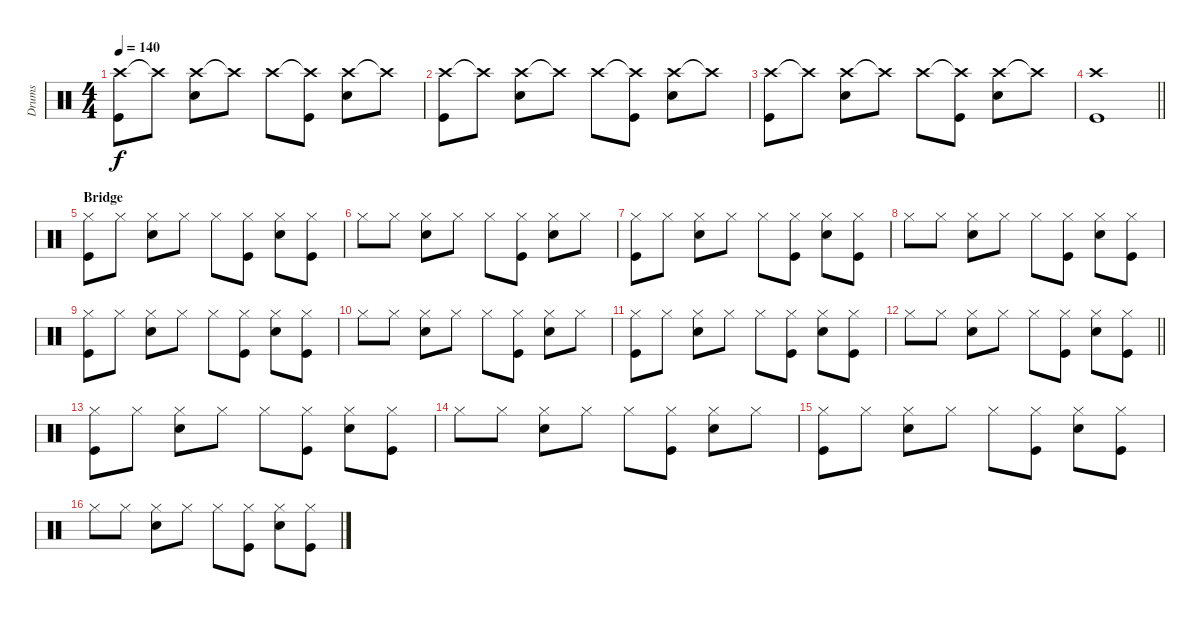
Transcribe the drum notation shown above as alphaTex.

\track ("Drums" "Drums") {instrument percussion}
\staff {score}
\articulation defaults
\ts (4 4)
\tempo 140
\clef neutral
\ks c
("Crash high (hit)" "Kick (hit)").8{dy f} "Crash high (hit)"{t}.8 ("Crash high (hit)" "Snare (hit) 2").8 "Crash high (hit)"{t}.8 "Crash high (hit)".8 ("Crash high (hit)"{t} "Kick (hit)").8 ("Crash high (hit)" "Snare (hit) 2").8 "Crash high (hit)"{t}.8 |
("Crash high (hit)" "Kick (hit)").8 "Crash high (hit)"{t}.8 ("Crash high (hit)" "Snare (hit) 2").8 "Crash high (hit)"{t}.8 "Crash high (hit)".8 ("Crash high (hit)"{t} "Kick (hit)").8 ("Crash high (hit)" "Snare (hit) 2").8 "Crash high (hit)"{t}.8 |
("Crash high (hit)" "Kick (hit)").8 "Crash high (hit)"{t}.8 ("Crash high (hit)" "Snare (hit) 2").8 "Crash high (hit)"{t}.8 "Crash high (hit)".8 ("Crash high (hit)"{t} "Kick (hit)").8 ("Crash high (hit)" "Snare (hit) 2").8 "Crash high (hit)"{t}.8 |
\barLineRight lightlight
("Crash high (hit)" "Kick (hit)").1 |
\section ("" "Bridge")
("Hi-Hat (closed)" "Kick (hit)").8 "Hi-Hat (closed)".8 ("Hi-Hat (closed)" "Snare (hit) 2").8 "Hi-Hat (closed)".8 "Hi-Hat (closed)".8 ("Hi-Hat (closed)" "Kick (hit)").8 ("Hi-Hat (closed)" "Snare (hit) 2").8 ("Hi-Hat (closed)" "Kick (hit)").8 |
"Hi-Hat (closed)".8 "Hi-Hat (closed)".8 ("Hi-Hat (closed)" "Snare (hit) 2").8 "Hi-Hat (closed)".8 "Hi-Hat (closed)".8 ("Hi-Hat (closed)" "Kick (hit)").8 ("Hi-Hat (closed)" "Snare (hit) 2").8 "Hi-Hat (closed)".8 |
("Hi-Hat (closed)" "Kick (hit)").8 "Hi-Hat (closed)".8 ("Hi-Hat (closed)" "Snare (hit) 2").8 "Hi-Hat (closed)".8 "Hi-Hat (closed)".8 ("Hi-Hat (closed)" "Kick (hit)").8 ("Hi-Hat (closed)" "Snare (hit) 2").8 ("Hi-Hat (closed)" "Kick (hit)").8 |
"Hi-Hat (closed)".8 "Hi-Hat (closed)".8 ("Hi-Hat (closed)" "Snare (hit) 2").8 "Hi-Hat (closed)".8 "Hi-Hat (closed)".8 ("Hi-Hat (closed)" "Kick (hit)").8 ("Hi-Hat (closed)" "Snare (hit) 2").8 ("Hi-Hat (closed)" "Kick (hit)").8 |
("Hi-Hat (closed)" "Kick (hit)").8 "Hi-Hat (closed)".8 ("Hi-Hat (closed)" "Snare (hit) 2").8 "Hi-Hat (closed)".8 "Hi-Hat (closed)".8 ("Hi-Hat (closed)" "Kick (hit)").8 ("Hi-Hat (closed)" "Snare (hit) 2").8 ("Hi-Hat (closed)" "Kick (hit)").8 |
"Hi-Hat (closed)".8 "Hi-Hat (closed)".8 ("Hi-Hat (closed)" "Snare (hit) 2").8 "Hi-Hat (closed)".8 "Hi-Hat (closed)".8 ("Hi-Hat (closed)" "Kick (hit)").8 ("Hi-Hat (closed)" "Snare (hit) 2").8 "Hi-Hat (closed)".8 |
("Hi-Hat (closed)" "Kick (hit)").8 "Hi-Hat (closed)".8 ("Hi-Hat (closed)" "Snare (hit) 2").8 "Hi-Hat (closed)".8 "Hi-Hat (closed)".8 ("Hi-Hat (closed)" "Kick (hit)").8 ("Hi-Hat (closed)" "Snare (hit) 2").8 ("Hi-Hat (closed)" "Kick (hit)").8 |
\barLineRight lightlight "Hi-Hat (closed)".8 "Hi-Hat (closed)".8
("Hi-Hat (closed)" "Snare (hit) 2").8 "Hi-Hat (closed)".8 "Hi-Hat (closed)".8 ("Hi-Hat (closed)" "Kick (hit)").8 ("Hi-Hat (closed)" "Snare (hit) 2").8 ("Hi-Hat (closed)" "Kick (hit)").8 |
("Hi-Hat (closed)" "Kick (hit)").8 "Hi-Hat (closed)".8 ("Hi-Hat (closed)" "Snare (hit) 2").8 "Hi-Hat (closed)".8 "Hi-Hat (closed)".8 ("Hi-Hat (closed)" "Kick (hit)").8 ("Hi-Hat (closed)" "Snare (hit) 2").8 ("Hi-Hat (closed)" "Kick (hit)").8 |
"Hi-Hat (closed)".8 "Hi-Hat (closed)".8 ("Hi-Hat (closed)" "Snare (hit) 2").8 "Hi-Hat (closed)".8 "Hi-Hat (closed)".8 ("Hi-Hat (closed)" "Kick (hit)").8 ("Hi-Hat (closed)" "Snare (hit) 2").8 "Hi-Hat (closed)".8 |
("Hi-Hat (closed)" "Kick (hit)").8 "Hi-Hat (closed)".8 ("Hi-Hat (closed)" "Snare (hit) 2").8 "Hi-Hat (closed)".8 "Hi-Hat (closed)".8 ("Hi-Hat (closed)" "Kick (hit)").8 ("Hi-Hat (closed)" "Snare (hit) 2").8 ("Hi-Hat (closed)" "Kick (hit)").8 |
"Hi-Hat (closed)".8 "Hi-Hat (closed)".8 ("Hi-Hat (closed)" "Snare (hit) 2").8 "Hi-Hat (closed)".8 "Hi-Hat (closed)".8 ("Hi-Hat (closed)" "Kick (hit)").8 ("Hi-Hat (closed)" "Snare (hit) 2").8 ("Hi-Hat (closed)" "Kick (hit)").8
